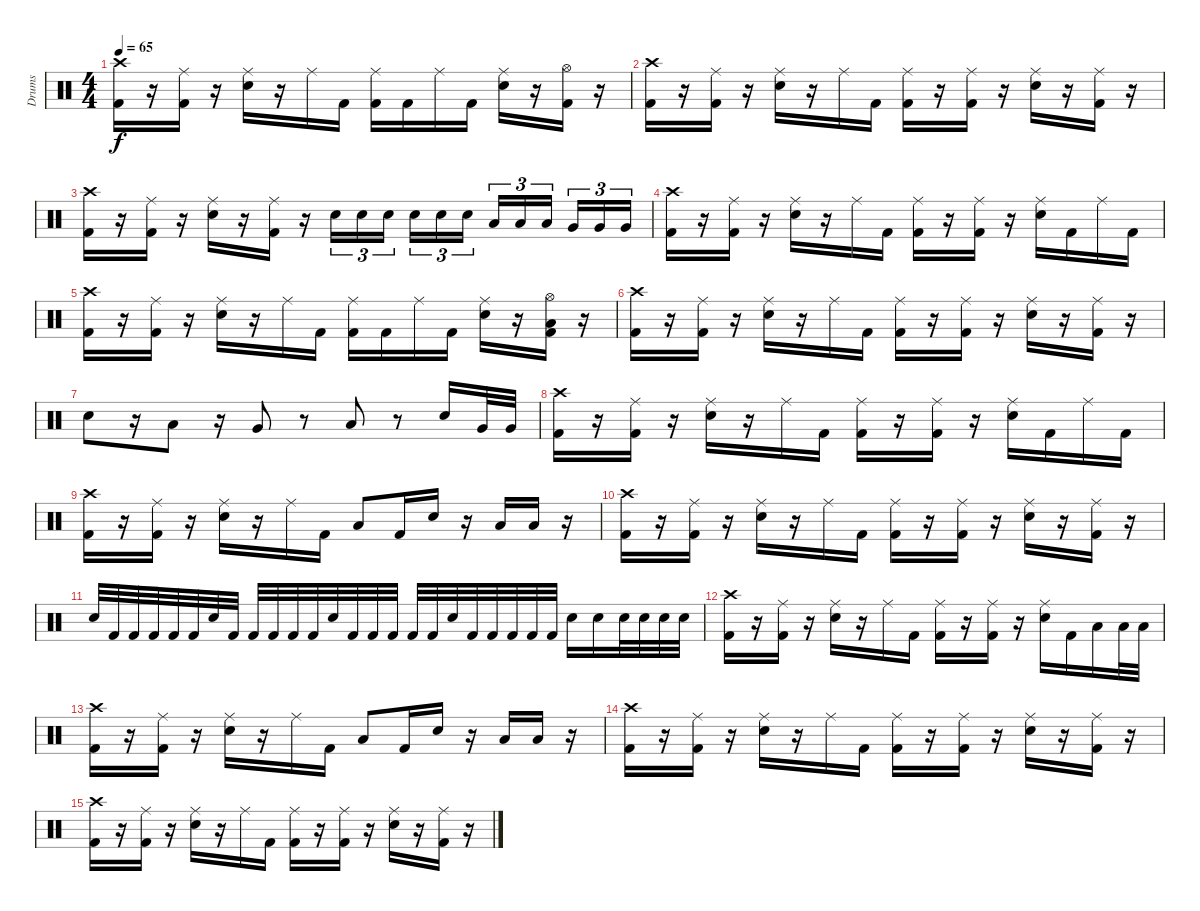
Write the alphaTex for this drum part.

\track ("Drums" "Drums") {instrument percussion}
\staff {score}
\articulation defaults
\ts (4 4)
\tempo 65
\clef neutral
\ks c
("Crash high (hit)" "Kick (hit) 2").16{dy f} r.16 ("Ride (middle)" "Kick (hit) 2").16 r.16 ("Ride (middle)" "Snare (hit) 2").16 r.16 "Ride (middle)".16 "Kick (hit) 2".16 ("Ride (middle)" "Kick (hit) 2").16 "Kick (hit) 2".16 "Ride (middle)".16 "Kick (hit) 2".16 ("Ride (middle)" "Snare (hit) 2").16 r.16 ("Hi-Hat (open)" "Kick (hit) 2").16 r.16 |
("Crash high (hit)" "Kick (hit) 2").16 r.16 ("Ride (middle)" "Kick (hit) 2").16 r.16 ("Ride (middle)" "Snare (hit) 2").16 r.16 "Ride (middle)".16 "Kick (hit) 2".16 ("Ride (middle)" "Kick (hit) 2").16 r.16 ("Ride (middle)" "Kick (hit) 2").16 r.16 ("Ride (middle)" "Snare (hit) 2").16 r.16 ("Ride (middle)" "Kick (hit) 2").16 r.16 |
("Crash high (hit)" "Kick (hit) 2").16 r.16 ("Ride (middle)" "Kick (hit) 2").16 r.16 ("Ride (middle)" "Snare (hit) 2").16 r.16 ("Ride (middle)" "Kick (hit) 2").16 r.16 "Snare (hit) 2".16{tu (3 2)} "Snare (hit) 2".16{tu (3 2)} "Snare (hit) 2".16{tu (3 2) beam splitsecondary} "Snare (hit) 2".16{tu (3 2)} "Snare (hit) 2".16{tu (3 2)} "Snare (hit) 2".16{tu (3 2)} "Low Tom (hit)".16{tu (3 2)} "Low Tom (hit)".16{tu (3 2)} "Low Tom (hit)".16{tu (3 2) beam splitsecondary} "Very Low Tom (hit)".16{tu (3 2)} "Very Low Tom (hit)".16{tu (3 2)} "Very Low Tom (hit)".16{tu (3 2)} |
("Crash high (hit)" "Kick (hit) 2").16 r.16 ("Ride (middle)" "Kick (hit) 2").16 r.16 ("Ride (middle)" "Snare (hit) 2").16 r.16 "Ride (middle)".16 "Kick (hit) 2".16 ("Ride (middle)" "Kick (hit) 2").16 r.16 ("Ride (middle)" "Kick (hit) 2").16 r.16 ("Ride (middle)" "Snare (hit) 2").16 "Kick (hit) 2".16 "Ride (middle)".16 "Kick (hit) 2".16 |
("Crash high (hit)" "Kick (hit) 2").16 r.16 ("Ride (middle)" "Kick (hit) 2").16 r.16 ("Ride (middle)" "Snare (hit) 2").16 r.16 "Ride (middle)".16 "Kick (hit) 2".16 ("Ride (middle)" "Kick (hit) 2").16 "Kick (hit) 2".16 "Ride (middle)".16 "Kick (hit) 2".16 ("Ride (middle)" "Snare (hit) 2").16 r.16 ("Hi-Hat (open)" "Low Tom (hit)" "Kick (hit) 2").16 r.16 |
("Crash high (hit)" "Kick (hit) 2").16 r.16 ("Ride (middle)" "Kick (hit) 2").16 r.16 ("Ride (middle)" "Snare (hit) 2").16 r.16 "Ride (middle)".16 "Kick (hit) 2".16 ("Ride (middle)" "Kick (hit) 2").16 r.16 ("Ride (middle)" "Kick (hit) 2").16 r.16 ("Ride (middle)" "Snare (hit) 2").16 r.16 ("Ride (middle)" "Kick (hit) 2").16 r.16 |
"Snare (hit) 2".8 r.16 "Low Tom (hit)".8 r.16 "Very Low Tom (hit)".8 r.8 "Low Floor Tom (hit)".8 r.8 "Snare (hit) 2".16 "Very Low Tom (hit)".32 "Very Low Tom (hit)".32 |
("Crash high (hit)" "Kick (hit) 2").16 r.16 ("Ride (middle)" "Kick (hit) 2").16 r.16 ("Ride (middle)" "Snare (hit) 2").16 r.16 "Ride (middle)".16 "Kick (hit) 2".16 ("Ride (middle)" "Kick (hit) 2").16 r.16 ("Ride (middle)" "Kick (hit) 2").16 r.16 ("Ride (middle)" "Snare (hit) 2").16 "Kick (hit) 2".16 "Ride (middle)".16 "Kick (hit) 2".16 |
("Crash high (hit)" "Kick (hit) 2").16 r.16 ("Ride (middle)" "Kick (hit) 2").16 r.16 ("Ride (middle)" "Snare (hit) 2").16 r.16 "Ride (middle)".16 "Kick (hit) 2".16 "Low Tom (hit)".8 "Kick (hit) 2".16 "Snare (hit) 2".16 r.16 "Low Tom (hit)".16 "Low Tom (hit)".16 r.16 |
("Crash high (hit)" "Kick (hit) 2").16 r.16 ("Ride (middle)" "Kick (hit) 2").16 r.16 ("Ride (middle)" "Snare (hit) 2").16 r.16 "Ride (middle)".16 "Kick (hit) 2".16 ("Ride (middle)" "Kick (hit) 2").16 r.16 ("Ride (middle)" "Kick (hit) 2").16 r.16 ("Ride (middle)" "Snare (hit) 2").16 r.16 ("Ride (middle)" "Kick (hit) 2").16 r.16 |
"Snare (hit) 2".32 "Kick (hit) 2".32 "Kick (hit) 2".32 "Kick (hit) 2".32 "Kick (hit) 2".32 "Kick (hit) 2".32 "Snare (hit) 2".32 "Kick (hit) 2".32 "Kick (hit) 2".32 "Kick (hit) 2".32 "Kick (hit) 2".32 "Kick (hit) 2".32 "Snare (hit) 2".32 "Kick (hit) 2".32 "Kick (hit) 2".32 "Kick (hit) 2".32 "Kick (hit) 2".32 "Kick (hit) 2".32 "Snare (hit) 2".32 "Kick (hit) 2".32 "Kick (hit) 2".32 "Kick (hit) 2".32 "Kick (hit) 2".32 "Kick (hit) 2".32 "Snare (hit) 2".16 "Snare (hit) 2".16 "Snare (hit) 2".32 "Snare (hit) 2".32 "Snare (hit) 2".32 "Snare (hit) 2".32 |
("Crash high (hit)" "Kick (hit) 2").16 r.16 ("Ride (middle)" "Kick (hit) 2").16 r.16 ("Ride (middle)" "Snare (hit) 2").16 r.16 "Ride (middle)".16 "Kick (hit) 2".16 ("Ride (middle)" "Kick (hit) 2").16 r.16 ("Ride (middle)" "Kick (hit) 2").16 r.16 ("Ride (middle)" "Snare (hit) 2").16 "Kick (hit) 2".16 "Low Tom (hit)".16 "Low Tom (hit)".32 "Low Tom (hit)".32 |
("Crash high (hit)" "Kick (hit) 2").16 r.16 ("Ride (middle)" "Kick (hit) 2").16 r.16 ("Ride (middle)" "Snare (hit) 2").16 r.16 "Ride (middle)".16 "Kick (hit) 2".16 "Low Tom (hit)".8 "Kick (hit) 2".16 "Snare (hit) 2".16 r.16 "Low Tom (hit)".16 "Low Tom (hit)".16 r.16 |
("Crash high (hit)" "Kick (hit) 2").16 r.16 ("Ride (middle)" "Kick (hit) 2").16 r.16 ("Ride (middle)" "Snare (hit) 2").16 r.16 "Ride (middle)".16 "Kick (hit) 2".16 ("Ride (middle)" "Kick (hit) 2").16 r.16 ("Ride (middle)" "Kick (hit) 2").16 r.16 ("Ride (middle)" "Snare (hit) 2").16 r.16 ("Ride (middle)" "Kick (hit) 2").16 r.16 |
("Crash high (hit)" "Kick (hit) 2").16 r.16 ("Ride (middle)" "Kick (hit) 2").16 r.16 ("Ride (middle)" "Snare (hit) 2").16 r.16 "Ride (middle)".16 "Kick (hit) 2".16 ("Ride (middle)" "Kick (hit) 2").16 r.16 ("Ride (middle)" "Kick (hit) 2").16 r.16 ("Ride (middle)" "Snare (hit) 2").16 r.16 ("Ride (middle)" "Kick (hit) 2").16 r.16
